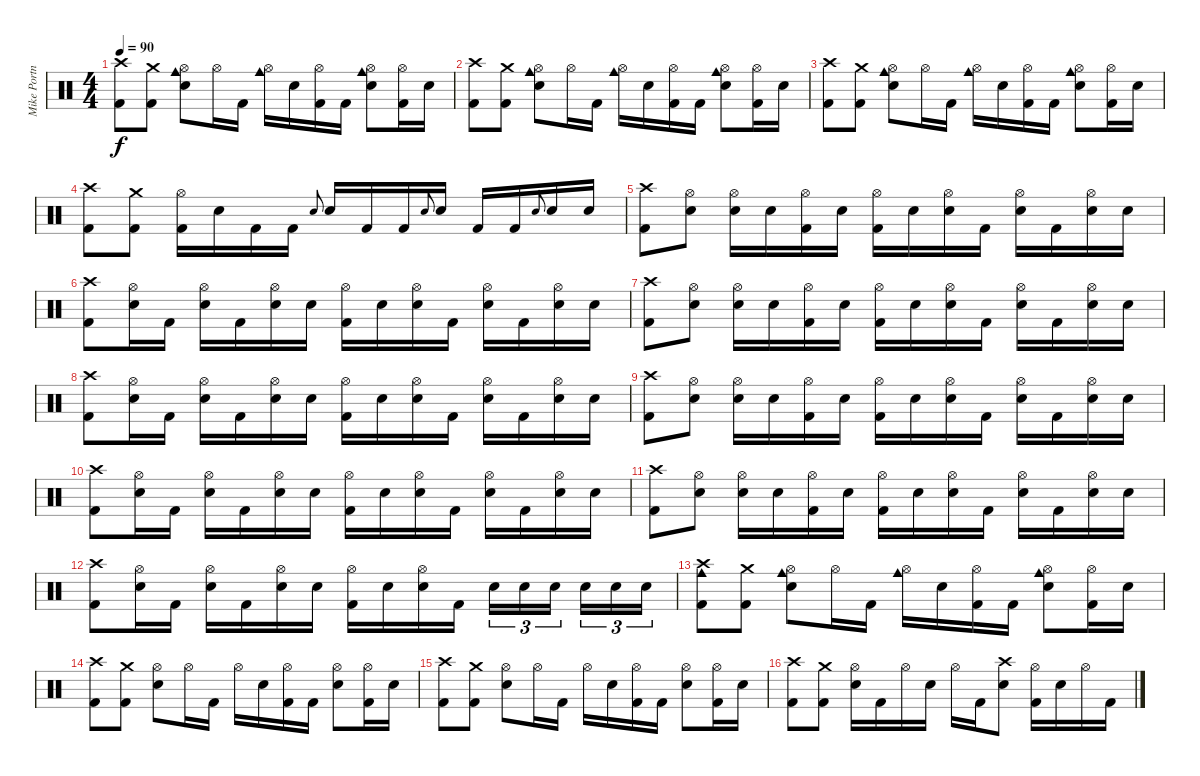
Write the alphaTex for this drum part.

\track ("Mike Portnoy" "Mike Portn") {instrument percussion}
\staff {score}
\articulation defaults
\ts (4 4)
\tempo 90
\clef neutral
\ks c
("Crash high (hit)" "Kick (hit) 2").8{dy f} ("Crash medium (hit)" "Kick (hit) 2").8 ("Cowbell medium (hit)" "Hi-Hat (open)" "Snare (hit) 2").8 "Hi-Hat (open)".16 "Kick (hit) 2".16 ("Cowbell medium (hit)" "Hi-Hat (open)").16 "Snare (hit) 2".16 ("Hi-Hat (open)" "Kick (hit) 2").16 "Kick (hit) 2".16 ("Cowbell medium (hit)" "Hi-Hat (open)" "Snare (hit) 2").8 ("Hi-Hat (open)" "Kick (hit) 2").16 "Snare (hit) 2".16 |
("Crash high (hit)" "Kick (hit) 2").8 ("Crash medium (hit)" "Kick (hit) 2").8 ("Cowbell medium (hit)" "Hi-Hat (open)" "Snare (hit) 2").8 "Hi-Hat (open)".16 "Kick (hit) 2".16 ("Cowbell medium (hit)" "Hi-Hat (open)").16 "Snare (hit) 2".16 ("Hi-Hat (open)" "Kick (hit) 2").16 "Kick (hit) 2".16 ("Cowbell medium (hit)" "Hi-Hat (open)" "Snare (hit) 2").8 ("Hi-Hat (open)" "Kick (hit) 2").16 "Snare (hit) 2".16 |
("Crash high (hit)" "Kick (hit) 2").8 ("Crash medium (hit)" "Kick (hit) 2").8 ("Cowbell medium (hit)" "Hi-Hat (open)" "Snare (hit) 2").8 "Hi-Hat (open)".16 "Kick (hit) 2".16 ("Cowbell medium (hit)" "Hi-Hat (open)").16 "Snare (hit) 2".16 ("Hi-Hat (open)" "Kick (hit) 2").16 "Kick (hit) 2".16 ("Cowbell medium (hit)" "Hi-Hat (open)" "Snare (hit) 2").8 ("Hi-Hat (open)" "Kick (hit) 2").16 "Snare (hit) 2".16 |
("Crash high (hit)" "Kick (hit) 2").8 ("Crash medium (hit)" "Kick (hit) 2").8 ("Hi-Hat (open)" "Kick (hit) 2").16 "Snare (hit) 2".16 "Kick (hit) 2".16 "Kick (hit) 2".16 "Snare (hit) 2".8{gr onbeat} "Snare (hit) 2".16 "Kick (hit) 2".16 "Kick (hit) 2".16 "Snare (hit) 2".8{gr onbeat} "Snare (hit) 2".16 "Kick (hit) 2".16 "Kick (hit) 2".16 "Snare (hit) 2".8{gr onbeat} "Snare (hit) 2".16 "Snare (hit) 2".16 |
("Crash high (hit)" "Kick (hit) 2").8 ("Hi-Hat (open)" "Snare (hit) 2").8 ("Hi-Hat (open)" "Snare (hit) 2").16 "Snare (hit) 2".16 ("Hi-Hat (open)" "Kick (hit) 2").16 "Snare (hit) 2".16 ("Hi-Hat (open)" "Kick (hit) 2").16 "Snare (hit) 2".16 ("Hi-Hat (open)" "Snare (hit) 2").16 "Kick (hit) 2".16 ("Hi-Hat (open)" "Snare (hit) 2").16 "Kick (hit) 2".16 ("Hi-Hat (open)" "Snare (hit) 2").16 "Snare (hit) 2".16 |
("Crash high (hit)" "Kick (hit) 2").8 ("Hi-Hat (open)" "Snare (hit) 2").16 "Kick (hit) 2".16 ("Hi-Hat (open)" "Snare (hit) 2").16 "Kick (hit) 2".16 ("Hi-Hat (open)" "Snare (hit) 2").16 "Snare (hit) 2".16 ("Hi-Hat (open)" "Kick (hit) 2").16 "Snare (hit) 2".16 ("Hi-Hat (open)" "Snare (hit) 2").16 "Kick (hit) 2".16 ("Hi-Hat (open)" "Snare (hit) 2").16 "Kick (hit) 2".16 ("Hi-Hat (open)" "Snare (hit) 2").16 "Snare (hit) 2".16 |
("Crash high (hit)" "Kick (hit) 2").8 ("Hi-Hat (open)" "Snare (hit) 2").8 ("Hi-Hat (open)" "Snare (hit) 2").16 "Snare (hit) 2".16 ("Hi-Hat (open)" "Kick (hit) 2").16 "Snare (hit) 2".16 ("Hi-Hat (open)" "Kick (hit) 2").16 "Snare (hit) 2".16 ("Hi-Hat (open)" "Snare (hit) 2").16 "Kick (hit) 2".16 ("Hi-Hat (open)" "Snare (hit) 2").16 "Kick (hit) 2".16 ("Hi-Hat (open)" "Snare (hit) 2").16 "Snare (hit) 2".16 |
("Crash high (hit)" "Kick (hit) 2").8 ("Hi-Hat (open)" "Snare (hit) 2").16 "Kick (hit) 2".16 ("Hi-Hat (open)" "Snare (hit) 2").16 "Kick (hit) 2".16 ("Hi-Hat (open)" "Snare (hit) 2").16 "Snare (hit) 2".16 ("Hi-Hat (open)" "Kick (hit) 2").16 "Snare (hit) 2".16 ("Hi-Hat (open)" "Snare (hit) 2").16 "Kick (hit) 2".16 ("Hi-Hat (open)" "Snare (hit) 2").16 "Kick (hit) 2".16 ("Hi-Hat (open)" "Snare (hit) 2").16 "Snare (hit) 2".16 |
("Crash high (hit)" "Kick (hit) 2").8 ("Hi-Hat (open)" "Snare (hit) 2").8 ("Hi-Hat (open)" "Snare (hit) 2").16 "Snare (hit) 2".16 ("Hi-Hat (open)" "Kick (hit) 2").16 "Snare (hit) 2".16 ("Hi-Hat (open)" "Kick (hit) 2").16 "Snare (hit) 2".16 ("Hi-Hat (open)" "Snare (hit) 2").16 "Kick (hit) 2".16 ("Hi-Hat (open)" "Snare (hit) 2").16 "Kick (hit) 2".16 ("Hi-Hat (open)" "Snare (hit) 2").16 "Snare (hit) 2".16 |
("Crash high (hit)" "Kick (hit) 2").8 ("Hi-Hat (open)" "Snare (hit) 2").16 "Kick (hit) 2".16 ("Hi-Hat (open)" "Snare (hit) 2").16 "Kick (hit) 2".16 ("Hi-Hat (open)" "Snare (hit) 2").16 "Snare (hit) 2".16 ("Hi-Hat (open)" "Kick (hit) 2").16 "Snare (hit) 2".16 ("Hi-Hat (open)" "Snare (hit) 2").16 "Kick (hit) 2".16 ("Hi-Hat (open)" "Snare (hit) 2").16 "Kick (hit) 2".16 ("Hi-Hat (open)" "Snare (hit) 2").16 "Snare (hit) 2".16 |
("Crash high (hit)" "Kick (hit) 2").8 ("Hi-Hat (open)" "Snare (hit) 2").8 ("Hi-Hat (open)" "Snare (hit) 2").16 "Snare (hit) 2".16 ("Hi-Hat (open)" "Kick (hit) 2").16 "Snare (hit) 2".16 ("Hi-Hat (open)" "Kick (hit) 2").16 "Snare (hit) 2".16 ("Hi-Hat (open)" "Snare (hit) 2").16 "Kick (hit) 2".16 ("Hi-Hat (open)" "Snare (hit) 2").16 "Kick (hit) 2".16 ("Hi-Hat (open)" "Snare (hit) 2").16 "Snare (hit) 2".16 |
("Crash high (hit)" "Kick (hit) 2").8 ("Hi-Hat (open)" "Snare (hit) 2").16 "Kick (hit) 2".16 ("Hi-Hat (open)" "Snare (hit) 2").16 "Kick (hit) 2".16 ("Hi-Hat (open)" "Snare (hit) 2").16 "Snare (hit) 2".16 ("Hi-Hat (open)" "Kick (hit) 2").16 "Snare (hit) 2".16 ("Hi-Hat (open)" "Snare (hit) 2").16 "Kick (hit) 2".16 "Snare (hit) 2".16{tu (3 2)} "Snare (hit) 2".16{tu (3 2)} "Snare (hit) 2".16{tu (3 2) beam splitsecondary} "Snare (hit) 2".16{tu (3 2)} "Snare (hit) 2".16{tu (3 2)} "Snare (hit) 2".16{tu (3 2)} |
("Crash high (hit)" "Cowbell medium (hit)" "Kick (hit) 2").8 ("Crash medium (hit)" "Kick (hit) 2").8 ("Cowbell medium (hit)" "Hi-Hat (open)" "Snare (hit) 2").8 "Hi-Hat (open)".16 "Kick (hit) 2".16 ("Cowbell medium (hit)" "Hi-Hat (open)").16 "Snare (hit) 2".16 ("Hi-Hat (open)" "Kick (hit) 2").16 "Kick (hit) 2".16 ("Cowbell medium (hit)" "Hi-Hat (open)" "Snare (hit) 2").8 ("Hi-Hat (open)" "Kick (hit) 2").16 "Snare (hit) 2".16 |
("Crash high (hit)" "Kick (hit) 2").8 ("Crash medium (hit)" "Kick (hit) 2").8 ("Hi-Hat (open)" "Snare (hit) 2").8 "Hi-Hat (open)".16 "Kick (hit) 2".16 "Hi-Hat (open)".16 "Snare (hit) 2".16 ("Hi-Hat (open)" "Kick (hit) 2").16 "Kick (hit) 2".16 ("Hi-Hat (open)" "Snare (hit) 2").8 ("Hi-Hat (open)" "Kick (hit) 2").16 "Snare (hit) 2".16 |
("Crash high (hit)" "Kick (hit) 2").8 ("Crash medium (hit)" "Kick (hit) 2").8 ("Hi-Hat (open)" "Snare (hit) 2").8 "Hi-Hat (open)".16 "Kick (hit) 2".16 "Hi-Hat (open)".16 "Snare (hit) 2".16 ("Hi-Hat (open)" "Kick (hit) 2").16 "Kick (hit) 2".16 ("Hi-Hat (open)" "Snare (hit) 2").8 ("Hi-Hat (open)" "Kick (hit) 2").16 "Snare (hit) 2".16 |
("Crash high (hit)" "Kick (hit) 2").8 ("Crash medium (hit)" "Kick (hit) 2").8 ("Hi-Hat (open)" "Snare (hit) 2").16 "Kick (hit) 2".16 "Hi-Hat (open)".16 "Snare (hit) 2".16 "Hi-Hat (open)".16 "Kick (hit) 2".16 ("Crash high (hit)" "Snare (hit) 2").8 ("Hi-Hat (open)" "Kick (hit) 2").16 "Snare (hit) 2".16 "Hi-Hat (open)".16 "Kick (hit) 2".16
